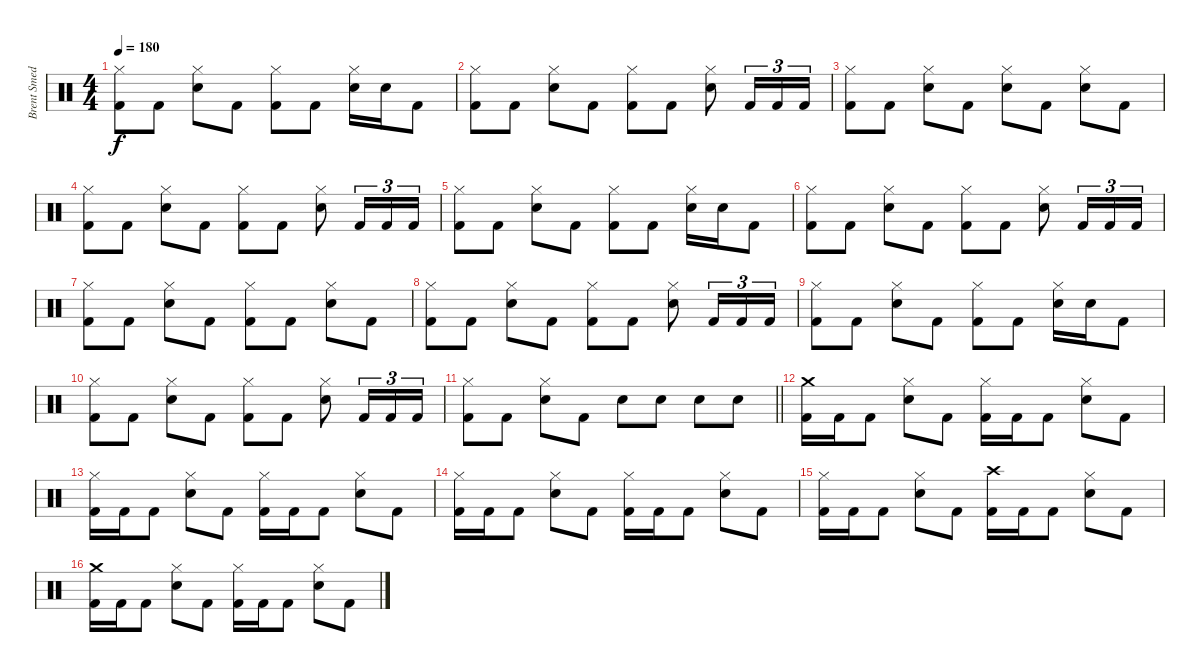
\track ("Brent Smedley" "Brent Smed") {instrument percussion}
\staff {score}
\articulation defaults
\ts (4 4)
\tempo 180
\clef neutral
\ks c
("Hi-Hat (closed)" "Kick (hit) 2").8{dy f} "Kick (hit) 2".8 ("Hi-Hat (closed)" "Snare (hit) 2").8 "Kick (hit) 2".8 ("Hi-Hat (closed)" "Kick (hit) 2").8 "Kick (hit) 2".8 ("Hi-Hat (closed)" "Snare (hit) 2").16 "Snare (hit) 2".16 "Kick (hit) 2".8 |
("Hi-Hat (closed)" "Kick (hit) 2").8 "Kick (hit) 2".8 ("Hi-Hat (closed)" "Snare (hit) 2").8 "Kick (hit) 2".8 ("Hi-Hat (closed)" "Kick (hit) 2").8 "Kick (hit) 2".8 ("Hi-Hat (closed)" "Snare (hit) 2").8 "Kick (hit) 2".16{tu (3 2)} "Kick (hit) 2".16{tu (3 2)} "Kick (hit) 2".16{tu (3 2)} |
("Hi-Hat (closed)" "Kick (hit) 2").8 "Kick (hit) 2".8 ("Hi-Hat (closed)" "Snare (hit) 2").8 "Kick (hit) 2".8 ("Hi-Hat (closed)" "Snare (hit) 2").8 "Kick (hit) 2".8 ("Hi-Hat (closed)" "Snare (hit) 2").8 "Kick (hit) 2".8 |
("Hi-Hat (closed)" "Kick (hit) 2").8 "Kick (hit) 2".8 ("Hi-Hat (closed)" "Snare (hit) 2").8 "Kick (hit) 2".8 ("Hi-Hat (closed)" "Kick (hit) 2").8 "Kick (hit) 2".8 ("Hi-Hat (closed)" "Snare (hit) 2").8 "Kick (hit) 2".16{tu (3 2)} "Kick (hit) 2".16{tu (3 2)} "Kick (hit) 2".16{tu (3 2)} |
("Hi-Hat (closed)" "Kick (hit) 2").8 "Kick (hit) 2".8 ("Hi-Hat (closed)" "Snare (hit) 2").8 "Kick (hit) 2".8 ("Hi-Hat (closed)" "Kick (hit) 2").8 "Kick (hit) 2".8 ("Hi-Hat (closed)" "Snare (hit) 2").16 "Snare (hit) 2".16 "Kick (hit) 2".8 |
("Hi-Hat (closed)" "Kick (hit) 2").8 "Kick (hit) 2".8 ("Hi-Hat (closed)" "Snare (hit) 2").8 "Kick (hit) 2".8 ("Hi-Hat (closed)" "Kick (hit) 2").8 "Kick (hit) 2".8 ("Hi-Hat (closed)" "Snare (hit) 2").8 "Kick (hit) 2".16{tu (3 2)} "Kick (hit) 2".16{tu (3 2)} "Kick (hit) 2".16{tu (3 2)} |
("Hi-Hat (closed)" "Kick (hit) 2").8 "Kick (hit) 2".8 ("Hi-Hat (closed)" "Snare (hit) 2").8 "Kick (hit) 2".8 ("Hi-Hat (closed)" "Kick (hit) 2").8 "Kick (hit) 2".8 ("Hi-Hat (closed)" "Snare (hit) 2").8 "Kick (hit) 2".8 |
("Hi-Hat (closed)" "Kick (hit) 2").8 "Kick (hit) 2".8 ("Hi-Hat (closed)" "Snare (hit) 2").8 "Kick (hit) 2".8 ("Hi-Hat (closed)" "Kick (hit) 2").8 "Kick (hit) 2".8 ("Hi-Hat (closed)" "Snare (hit) 2").8 "Kick (hit) 2".16{tu (3 2)} "Kick (hit) 2".16{tu (3 2)} "Kick (hit) 2".16{tu (3 2)} |
("Hi-Hat (closed)" "Kick (hit) 2").8 "Kick (hit) 2".8 ("Hi-Hat (closed)" "Snare (hit) 2").8 "Kick (hit) 2".8 ("Hi-Hat (closed)" "Kick (hit) 2").8 "Kick (hit) 2".8 ("Hi-Hat (closed)" "Snare (hit) 2").16 "Snare (hit) 2".16 "Kick (hit) 2".8 |
("Hi-Hat (closed)" "Kick (hit) 2").8 "Kick (hit) 2".8 ("Hi-Hat (closed)" "Snare (hit) 2").8 "Kick (hit) 2".8 ("Hi-Hat (closed)" "Kick (hit) 2").8 "Kick (hit) 2".8 ("Hi-Hat (closed)" "Snare (hit) 2").8 "Kick (hit) 2".16{tu (3 2)} "Kick (hit) 2".16{tu (3 2)} "Kick (hit) 2".16{tu (3 2)} |
\barLineRight lightlight
("Hi-Hat (closed)" "Kick (hit) 2").8 "Kick (hit) 2".8 ("Hi-Hat (closed)" "Snare (hit) 2").8 "Kick (hit) 2".8 "Snare (hit) 2".8 "Snare (hit) 2".8 "Snare (hit) 2".8 "Snare (hit) 2".8 |
("Crash medium (hit)" "Kick (hit) 2").16 "Kick (hit) 2".16 "Kick (hit) 2".8 ("Hi-Hat (closed)" "Snare (hit) 2").8 "Kick (hit) 2".8 ("Hi-Hat (closed)" "Kick (hit) 2").16 "Kick (hit) 2".16 "Kick (hit) 2".8 ("Hi-Hat (closed)" "Snare (hit) 2").8 "Kick (hit) 2".8 |
("Hi-Hat (closed)" "Kick (hit) 2").16 "Kick (hit) 2".16 "Kick (hit) 2".8 ("Hi-Hat (closed)" "Snare (hit) 2").8 "Kick (hit) 2".8 ("Hi-Hat (closed)" "Kick (hit) 2").16 "Kick (hit) 2".16 "Kick (hit) 2".8 ("Hi-Hat (closed)" "Snare (hit) 2").8 "Kick (hit) 2".8 |
("Hi-Hat (closed)" "Kick (hit) 2").16 "Kick (hit) 2".16 "Kick (hit) 2".8 ("Hi-Hat (closed)" "Snare (hit) 2").8 "Kick (hit) 2".8 ("Hi-Hat (closed)" "Kick (hit) 2").16 "Kick (hit) 2".16 "Kick (hit) 2".8 ("Hi-Hat (closed)" "Snare (hit) 2").8 "Kick (hit) 2".8 |
("Hi-Hat (closed)" "Kick (hit) 2").16 "Kick (hit) 2".16 "Kick (hit) 2".8 ("Hi-Hat (closed)" "Snare (hit) 2").8 "Kick (hit) 2".8 ("Crash high (hit)" "Kick (hit) 2").16 "Kick (hit) 2".16 "Kick (hit) 2".8 ("Hi-Hat (closed)" "Snare (hit) 2").8 "Kick (hit) 2".8 |
("Crash medium (hit)" "Kick (hit) 2").16 "Kick (hit) 2".16 "Kick (hit) 2".8 ("Hi-Hat (closed)" "Snare (hit) 2").8 "Kick (hit) 2".8 ("Hi-Hat (closed)" "Kick (hit) 2").16 "Kick (hit) 2".16 "Kick (hit) 2".8 ("Hi-Hat (closed)" "Snare (hit) 2").8 "Kick (hit) 2".8
